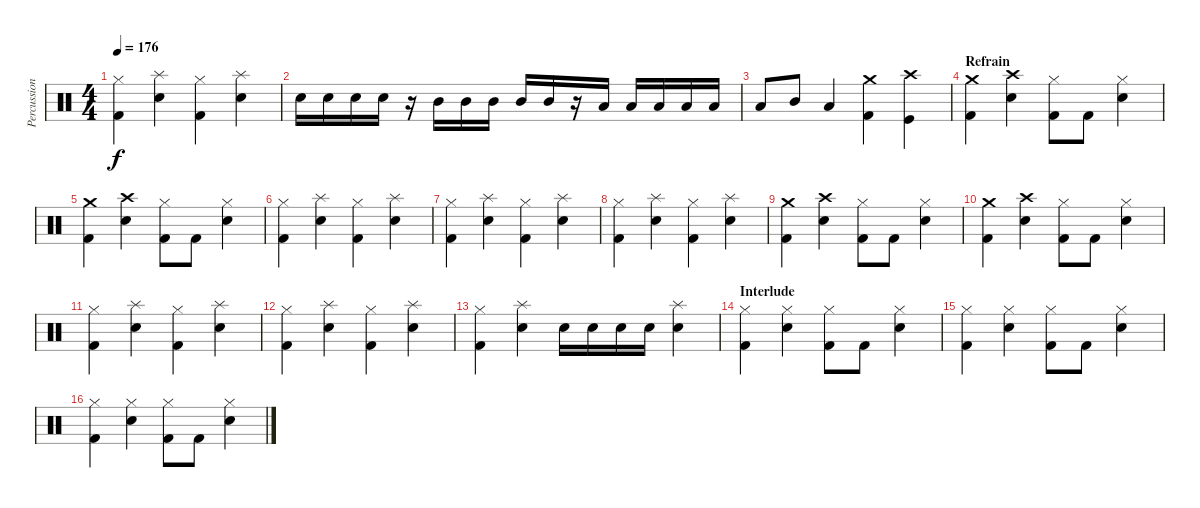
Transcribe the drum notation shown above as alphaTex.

\track ("Percussion" "Percussion") {instrument percussion}
\staff {score}
\articulation defaults
\ts (4 4)
\tempo 176
\clef neutral
\ks c
("Hi-Hat (closed)" "Kick (hit) 2").4{dy f} ("Splash (hit)" "Snare (hit) 2").4 ("Hi-Hat (closed)" "Kick (hit) 2").4 ("Splash (hit)" "Snare (hit) 2").4 |
"Snare (hit) 2".16 "Snare (hit) 2".16 "Snare (hit) 2".16 "Snare (hit) 2".16 r.16 "Mid Tom (hit)".16 "Mid Tom (hit)".16 "Mid Tom (hit)".16 "Mid Tom (hit)".16 "Mid Tom (hit)".16 r.16 "Low Tom (hit)".16 "Low Tom (hit)".16 "Low Tom (hit)".16 "Low Tom (hit)".16 "Low Tom (hit)".16 |
"Low Tom (hit)".8 "Mid Tom (hit)".8 "Low Tom (hit)".4 ("Crash medium (hit)" "Kick (hit) 2").4 ("Crash high (hit)" "Kick (hit)").4 |
\section ("" "Refrain")
("Crash medium (hit)" "Kick (hit) 2").4 ("Crash high (hit)" "Snare (hit) 2").4 ("Hi-Hat (closed)" "Kick (hit) 2").8 "Kick (hit) 2".8 ("Hi-Hat (closed)" "Snare (hit) 2").4 |
("Crash medium (hit)" "Kick (hit) 2").4 ("Crash high (hit)" "Snare (hit) 2").4 ("Hi-Hat (closed)" "Kick (hit) 2").8 "Kick (hit) 2".8 ("Hi-Hat (closed)" "Snare (hit) 2").4 |
("Hi-Hat (closed)" "Kick (hit) 2").4 ("Splash (hit)" "Snare (hit) 2").4 ("Hi-Hat (closed)" "Kick (hit) 2").4 ("Splash (hit)" "Snare (hit) 2").4 |
("Hi-Hat (closed)" "Kick (hit) 2").4 ("Splash (hit)" "Snare (hit) 2").4 ("Hi-Hat (closed)" "Kick (hit) 2").4 ("Splash (hit)" "Snare (hit) 2").4 |
("Hi-Hat (closed)" "Kick (hit) 2").4 ("Splash (hit)" "Snare (hit) 2").4 ("Hi-Hat (closed)" "Kick (hit) 2").4 ("Splash (hit)" "Snare (hit) 2").4 |
("Crash medium (hit)" "Kick (hit) 2").4 ("Crash high (hit)" "Snare (hit) 2").4 ("Hi-Hat (closed)" "Kick (hit) 2").8 "Kick (hit) 2".8 ("Hi-Hat (closed)" "Snare (hit) 2").4 |
("Crash medium (hit)" "Kick (hit) 2").4 ("Crash high (hit)" "Snare (hit) 2").4 ("Hi-Hat (closed)" "Kick (hit) 2").8 "Kick (hit) 2".8 ("Hi-Hat (closed)" "Snare (hit) 2").4 |
("Hi-Hat (closed)" "Kick (hit) 2").4 ("Splash (hit)" "Snare (hit) 2").4 ("Hi-Hat (closed)" "Kick (hit) 2").4 ("Splash (hit)" "Snare (hit) 2").4 |
("Hi-Hat (closed)" "Kick (hit) 2").4 ("Splash (hit)" "Snare (hit) 2").4 ("Hi-Hat (closed)" "Kick (hit) 2").4 ("Splash (hit)" "Snare (hit) 2").4 |
("Hi-Hat (closed)" "Kick (hit) 2").4 ("Splash (hit)" "Snare (hit) 2").4 "Snare (hit) 2".16 "Snare (hit) 2".16 "Snare (hit) 2".16 "Snare (hit) 2".16 ("Splash (hit)" "Snare (hit) 2").4 |
\section ("" "Interlude")
("Hi-Hat (closed)" "Kick (hit) 2").4 ("Hi-Hat (closed)" "Snare (hit) 2").4 ("Hi-Hat (closed)" "Kick (hit) 2").8 "Kick (hit) 2".8 ("Hi-Hat (closed)" "Snare (hit) 2").4 |
("Hi-Hat (closed)" "Kick (hit) 2").4 ("Hi-Hat (closed)" "Snare (hit) 2").4 ("Hi-Hat (closed)" "Kick (hit) 2").8 "Kick (hit) 2".8 ("Hi-Hat (closed)" "Snare (hit) 2").4 |
("Hi-Hat (closed)" "Kick (hit) 2").4 ("Hi-Hat (closed)" "Snare (hit) 2").4 ("Hi-Hat (closed)" "Kick (hit) 2").8 "Kick (hit) 2".8 ("Hi-Hat (closed)" "Snare (hit) 2").4
